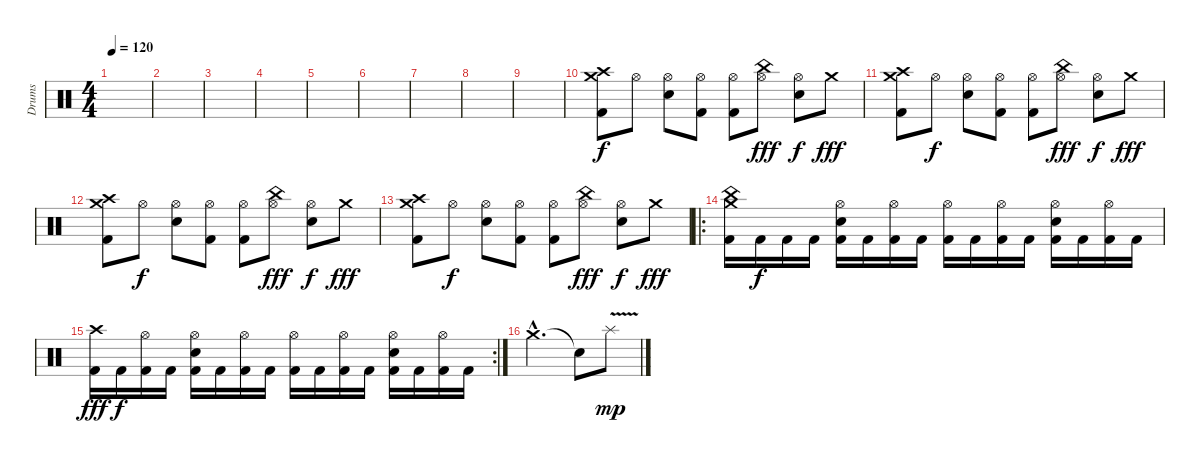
\track ("Drums" "Drums") {instrument percussion}
\staff {score}
\articulation defaults
\ts (4 4)
\tempo 120
\clef neutral
\ks c
|
|
|
|
|
|
|
|
|
("Crash medium (hit)" "Crash high (hit)" "Kick (hit) 2").8 "Hi-Hat (open)".8{dy f} ("Hi-Hat (open)" "Electric Snare (hit)").8 ("Hi-Hat (open)" "Kick (hit) 2").8 ("Hi-Hat (open)" "Kick (hit) 2").8 ("China (hit)" "Hi-Hat (open)").8{dy fff} ("Hi-Hat (open)" "Electric Snare (hit)").8{dy f} "Crash medium (hit)".8{dy fff} |
("Crash medium (hit)" "Crash high (hit)" "Kick (hit) 2").8 "Hi-Hat (open)".8{dy f} ("Hi-Hat (open)" "Electric Snare (hit)").8 ("Hi-Hat (open)" "Kick (hit) 2").8 ("Hi-Hat (open)" "Kick (hit) 2").8 ("China (hit)" "Hi-Hat (open)").8{dy fff} ("Hi-Hat (open)" "Electric Snare (hit)").8{dy f} "Crash medium (hit)".8{dy fff} |
("Crash medium (hit)" "Crash high (hit)" "Kick (hit) 2").8 "Hi-Hat (open)".8{dy f} ("Hi-Hat (open)" "Electric Snare (hit)").8 ("Hi-Hat (open)" "Kick (hit) 2").8 ("Hi-Hat (open)" "Kick (hit) 2").8 ("China (hit)" "Hi-Hat (open)").8{dy fff} ("Hi-Hat (open)" "Electric Snare (hit)").8{dy f} "Crash medium (hit)".8{dy fff} |
("Crash medium (hit)" "Crash high (hit)" "Kick (hit) 2").8 "Hi-Hat (open)".8{dy f} ("Hi-Hat (open)" "Electric Snare (hit)").8 ("Hi-Hat (open)" "Kick (hit) 2").8 ("Hi-Hat (open)" "Kick (hit) 2").8 ("China (hit)" "Hi-Hat (open)").8{dy fff} ("Hi-Hat (open)" "Electric Snare (hit)").8{dy f} "Crash medium (hit)".8{dy fff} |
\ro
("Crash medium (hit)" "China (hit)" "Kick (hit) 2").16 "Kick (hit) 2".16{dy f} "Kick (hit) 2".16 "Kick (hit) 2".16 ("Hi-Hat (open)" "Electric Snare (hit)" "Kick (hit) 2").16 "Kick (hit) 2".16 ("Hi-Hat (open)" "Kick (hit) 2").16 "Kick (hit) 2".16 ("Hi-Hat (open)" "Kick (hit) 2").16 "Kick (hit) 2".16 ("Hi-Hat (open)" "Kick (hit) 2").16 "Kick (hit) 2".16 ("Hi-Hat (open)" "Electric Snare (hit)" "Kick (hit) 2").16 "Kick (hit) 2".16 ("Hi-Hat (open)" "Kick (hit) 2").16 "Kick (hit) 2".16 |
\rc 2
("Crash high (hit)" "Kick (hit) 2").16{dy fff} "Kick (hit) 2".16{dy f} ("Hi-Hat (open)" "Kick (hit) 2").16 "Kick (hit) 2".16 ("Hi-Hat (open)" "Electric Snare (hit)" "Kick (hit) 2").16 "Kick (hit) 2".16 ("Hi-Hat (open)" "Kick (hit) 2").16 "Kick (hit) 2".16 ("Hi-Hat (open)" "Kick (hit) 2").16 "Kick (hit) 2".16 ("Hi-Hat (open)" "Kick (hit) 2").16 "Kick (hit) 2".16 ("Hi-Hat (open)" "Electric Snare (hit)" "Kick (hit) 2").16 "Kick (hit) 2".16 ("Hi-Hat (open)" "Kick (hit) 2").16 "Kick (hit) 2".16 |
"Crash medium (hit)"{hac}.2{d} "Snare (hit)"{t}.8 "Splash (hit)"{v}.8{dy mp}
